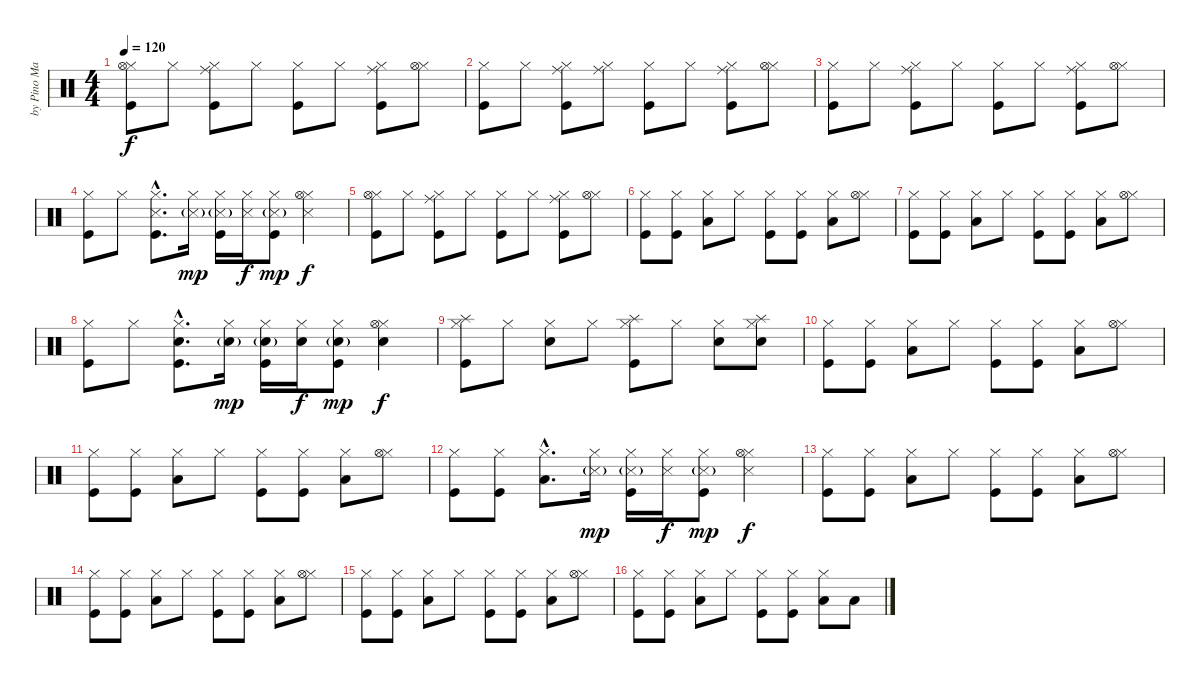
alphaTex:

\track ("by Pino Mariconda - e Gianni De Vita" "by Pino Ma") {instrument percussion}
\staff {score}
\articulation defaults
\ts (4 4)
\tempo 120
\clef neutral
\ks c
("Hi-Hat (closed)" "Hi-Hat (open)" "Kick (hit)").8{dy f} "Hi-Hat (closed)".8 ("Ride (middle)" "Hi-Hat (closed)" "Kick (hit)").8 "Hi-Hat (closed)".8 ("Hi-Hat (closed)" "Kick (hit)").8 "Hi-Hat (closed)".8 ("Ride (middle)" "Hi-Hat (closed)" "Kick (hit)").8 ("Hi-Hat (closed)" "Hi-Hat (open)").8 |
("Hi-Hat (closed)" "Kick (hit)").8 "Hi-Hat (closed)".8 ("Ride (middle)" "Hi-Hat (closed)" "Kick (hit)").8 ("Ride (middle)" "Hi-Hat (closed)").8 ("Hi-Hat (closed)" "Kick (hit)").8 "Hi-Hat (closed)".8 ("Ride (middle)" "Hi-Hat (closed)" "Kick (hit)").8 ("Hi-Hat (closed)" "Hi-Hat (open)").8 |
("Hi-Hat (closed)" "Kick (hit)").8 "Hi-Hat (closed)".8 ("Ride (middle)" "Hi-Hat (closed)" "Kick (hit)").8 "Hi-Hat (closed)".8 ("Hi-Hat (closed)" "Kick (hit)").8 "Hi-Hat (closed)".8 ("Ride (middle)" "Hi-Hat (closed)" "Kick (hit)").8 ("Hi-Hat (closed)" "Hi-Hat (open)").8 |
("Hi-Hat (closed)" "Kick (hit)").8 "Hi-Hat (closed)".8 ("Hi-Hat (closed)"{hac} "Kick (hit)"{hac} "Snare (side stick) 3"{hac}).8{d} ("Hi-Hat (closed)" "Snare (side stick) 3"{g}).16{dy mp} ("Hi-Hat (closed)" "Kick (hit)" "Snare (side stick) 3"{g}).16 ("Hi-Hat (closed)" "Snare (side stick) 3").16{dy f} ("Hi-Hat (closed)" "Kick (hit)" "Snare (side stick) 3"{g}).8{dy mp} ("Hi-Hat (closed)" "Hi-Hat (open)" "Snare (side stick) 3").4{dy f} |
("Hi-Hat (closed)" "Hi-Hat (open)" "Kick (hit)").8 "Hi-Hat (closed)".8 ("Ride (middle)" "Hi-Hat (closed)" "Kick (hit)").8 "Hi-Hat (closed)".8 ("Hi-Hat (closed)" "Kick (hit)").8 "Hi-Hat (closed)".8 ("Ride (middle)" "Hi-Hat (closed)" "Kick (hit)").8 ("Hi-Hat (closed)" "Hi-Hat (open)").8 |
("Hi-Hat (closed)" "Kick (hit)").8 ("Hi-Hat (closed)" "Kick (hit)").8 ("Hi-Hat (closed)" "Low Tom (hit)").8 "Hi-Hat (closed)".8 ("Hi-Hat (closed)" "Kick (hit)").8 ("Hi-Hat (closed)" "Kick (hit)").8 ("Hi-Hat (closed)" "Low Tom (hit)").8 ("Hi-Hat (closed)" "Hi-Hat (open)").8 |
("Hi-Hat (closed)" "Kick (hit)").8 ("Hi-Hat (closed)" "Kick (hit)").8 ("Hi-Hat (closed)" "Low Tom (hit)").8 "Hi-Hat (closed)".8 ("Hi-Hat (closed)" "Kick (hit)").8 ("Hi-Hat (closed)" "Kick (hit)").8 ("Hi-Hat (closed)" "Low Tom (hit)").8 ("Hi-Hat (closed)" "Hi-Hat (open)").8 |
("Hi-Hat (closed)" "Kick (hit)").8 "Hi-Hat (closed)".8 ("Hi-Hat (closed)"{hac} "Kick (hit)"{hac} "Snare (hit) 2"{hac}).8{d} ("Hi-Hat (closed)" "Snare (hit) 2"{g}).16{dy mp} ("Hi-Hat (closed)" "Kick (hit)" "Snare (hit) 2"{g}).16 ("Hi-Hat (closed)" "Snare (hit) 2").16{dy f} ("Hi-Hat (closed)" "Kick (hit)" "Snare (hit) 2"{g}).8{dy mp} ("Hi-Hat (closed)" "Hi-Hat (open)" "Snare (hit) 2").4{dy f} |
("Splash (hit)" "Hi-Hat (closed)" "Kick (hit)").8 "Hi-Hat (closed)".8 ("Hi-Hat (closed)" "Snare (hit) 2").8 "Hi-Hat (closed)".8 ("Splash (hit)" "Hi-Hat (closed)" "Kick (hit)").8 "Hi-Hat (closed)".8 ("Hi-Hat (closed)" "Snare (hit) 2").8 ("Splash (hit)" "Hi-Hat (closed)" "Snare (hit) 2").8 |
("Hi-Hat (closed)" "Kick (hit)").8 ("Hi-Hat (closed)" "Kick (hit)").8 ("Hi-Hat (closed)" "Low Tom (hit)").8 "Hi-Hat (closed)".8 ("Hi-Hat (closed)" "Kick (hit)").8 ("Hi-Hat (closed)" "Kick (hit)").8 ("Hi-Hat (closed)" "Low Tom (hit)").8 ("Hi-Hat (closed)" "Hi-Hat (open)").8 |
("Hi-Hat (closed)" "Kick (hit)").8 ("Hi-Hat (closed)" "Kick (hit)").8 ("Hi-Hat (closed)" "Low Tom (hit)").8 "Hi-Hat (closed)".8 ("Hi-Hat (closed)" "Kick (hit)").8 ("Hi-Hat (closed)" "Kick (hit)").8 ("Hi-Hat (closed)" "Low Tom (hit)").8 ("Hi-Hat (closed)" "Hi-Hat (open)").8 |
("Hi-Hat (closed)" "Kick (hit)").8 ("Hi-Hat (closed)" "Kick (hit)").8 ("Hi-Hat (closed)"{hac} "Low Tom (hit)"{hac}).8{d} ("Hi-Hat (closed)" "Snare (side stick) 3"{g}).16{dy mp} ("Hi-Hat (closed)" "Kick (hit)" "Snare (side stick) 3"{g}).16 ("Hi-Hat (closed)" "Snare (side stick) 3").16{dy f} ("Hi-Hat (closed)" "Kick (hit)" "Snare (side stick) 3"{g}).8{dy mp} ("Hi-Hat (closed)" "Hi-Hat (open)" "Snare (side stick) 3").4{dy f} |
("Hi-Hat (closed)" "Kick (hit)").8 ("Hi-Hat (closed)" "Kick (hit)").8 ("Hi-Hat (closed)" "Low Tom (hit)").8 "Hi-Hat (closed)".8 ("Hi-Hat (closed)" "Kick (hit)").8 ("Hi-Hat (closed)" "Kick (hit)").8 ("Hi-Hat (closed)" "Low Tom (hit)").8 ("Hi-Hat (closed)" "Hi-Hat (open)").8 |
("Hi-Hat (closed)" "Kick (hit)").8 ("Hi-Hat (closed)" "Kick (hit)").8 ("Hi-Hat (closed)" "Low Tom (hit)").8 "Hi-Hat (closed)".8 ("Hi-Hat (closed)" "Kick (hit)").8 ("Hi-Hat (closed)" "Kick (hit)").8 ("Hi-Hat (closed)" "Low Tom (hit)").8 ("Hi-Hat (closed)" "Hi-Hat (open)").8 |
("Hi-Hat (closed)" "Kick (hit)").8 ("Hi-Hat (closed)" "Kick (hit)").8 ("Hi-Hat (closed)" "Low Tom (hit)").8 "Hi-Hat (closed)".8 ("Hi-Hat (closed)" "Kick (hit)").8 ("Hi-Hat (closed)" "Kick (hit)").8 ("Hi-Hat (closed)" "Low Tom (hit)").8 ("Hi-Hat (closed)" "Hi-Hat (open)").8 |
("Hi-Hat (closed)" "Kick (hit)").8 ("Hi-Hat (closed)" "Kick (hit)").8 ("Hi-Hat (closed)" "Low Tom (hit)").8 "Hi-Hat (closed)".8 ("Hi-Hat (closed)" "Kick (hit)").8 ("Hi-Hat (closed)" "Kick (hit)").8 ("Hi-Hat (closed)" "Low Tom (hit)").8 "Low Tom (hit)".8
